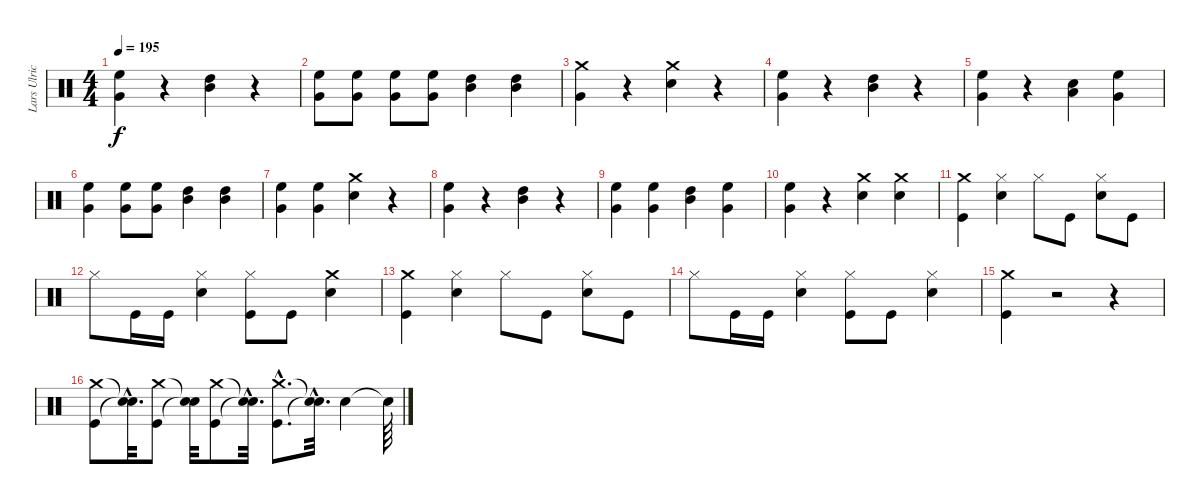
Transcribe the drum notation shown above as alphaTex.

\track ("Lars Ulrich (Drums)" "Lars Ulric") {instrument percussion}
\staff {score}
\articulation defaults
\ts (4 4)
\tempo 195
\clef neutral
\ks c
("High Floor Tom (hit)" "Very Low Tom (hit)").4{dy f} r.4 ("Mid Tom (hit)" "High Tom (hit)").4 r.4 |
("High Floor Tom (hit)" "Very Low Tom (hit)").8 ("High Floor Tom (hit)" "Very Low Tom (hit)").8 ("High Floor Tom (hit)" "Very Low Tom (hit)").8 ("High Floor Tom (hit)" "Very Low Tom (hit)").8 ("Mid Tom (hit)" "High Tom (hit)").4 ("Mid Tom (hit)" "High Tom (hit)").4 |
("Very Low Tom (hit)" "Crash medium (hit)").4 r.4 ("Crash medium (hit)" "Snare (hit) 2").4 r.4 |
("High Floor Tom (hit)" "Very Low Tom (hit)").4 r.4 ("Mid Tom (hit)" "High Tom (hit)").4 r.4 |
("Very Low Tom (hit)" "High Floor Tom (hit)").4 r.4 ("Snare (hit) 2" "Low Tom (hit)").4 ("High Floor Tom (hit)" "Very Low Tom (hit)").4 |
("Very Low Tom (hit)" "High Floor Tom (hit)").4 ("High Floor Tom (hit)" "Very Low Tom (hit)").8 ("High Floor Tom (hit)" "Very Low Tom (hit)").8 ("Mid Tom (hit)" "High Tom (hit)").4 ("Mid Tom (hit)" "High Tom (hit)").4 |
("Very Low Tom (hit)" "High Floor Tom (hit)").4 ("Very Low Tom (hit)" "High Floor Tom (hit)").4 ("Crash medium (hit)" "Snare (hit) 2").4 r.4 |
("High Floor Tom (hit)" "Very Low Tom (hit)").4 r.4 ("Mid Tom (hit)" "High Tom (hit)").4 r.4 |
("High Floor Tom (hit)" "Very Low Tom (hit)").4 ("Very Low Tom (hit)" "High Floor Tom (hit)").4 ("Mid Tom (hit)" "High Tom (hit)").4 ("High Floor Tom (hit)" "Very Low Tom (hit)").4 |
("Very Low Tom (hit)" "High Floor Tom (hit)").4 r.4 ("Crash medium (hit)" "Snare (hit) 2").4 ("Crash medium (hit)" "Snare (hit) 2").4 |
("Kick (hit)" "Crash medium (hit)").4 ("Hi-Hat (closed)" "Snare (hit) 2").4 "Hi-Hat (closed)".8 "Kick (hit)".8 ("Snare (hit) 2" "Hi-Hat (closed)").8 "Kick (hit)".8 |
"Hi-Hat (closed)".8 "Kick (hit)".16 "Kick (hit)".16 ("Snare (hit) 2" "Hi-Hat (closed)").4 ("Hi-Hat (closed)" "Kick (hit)").8 "Kick (hit)".8 ("Crash medium (hit)" "Snare (hit) 2").4 |
("Kick (hit)" "Crash medium (hit)").4 ("Hi-Hat (closed)" "Snare (hit) 2").4 "Hi-Hat (closed)".8 "Kick (hit)".8 ("Snare (hit) 2" "Hi-Hat (closed)").8 "Kick (hit)".8 |
"Hi-Hat (closed)".8 "Kick (hit)".16 "Kick (hit)".16 ("Snare (hit) 2" "Hi-Hat (closed)").4 ("Hi-Hat (closed)" "Kick (hit)").8 "Kick (hit)".8 ("Snare (hit) 2" "Hi-Hat (closed)").4 |
("Crash medium (hit)" "Kick (hit)").4 r.2 r.4 |
("Kick (hit)" "Crash medium (hit)").8 ("Snare (hit)"{hac t} "Snare (hit)"{hac t}).32{d} ("Kick (hit)" "Crash medium (hit)").8 ("Snare (hit)"{t} "Snare (hit)"{t}).32 ("Kick (hit)" "Crash medium (hit)").8 ("Snare (hit)"{hac t} "Snare (hit)"{hac t}).32{d} ("Kick (hit)"{hac} "Crash medium (hit)"{hac}).8{d} ("Snare (hit)"{hac t} "Snare (hit)"{hac t}).32{d} "Snare (hit) 2".4 "Snare (hit)"{t}.64
